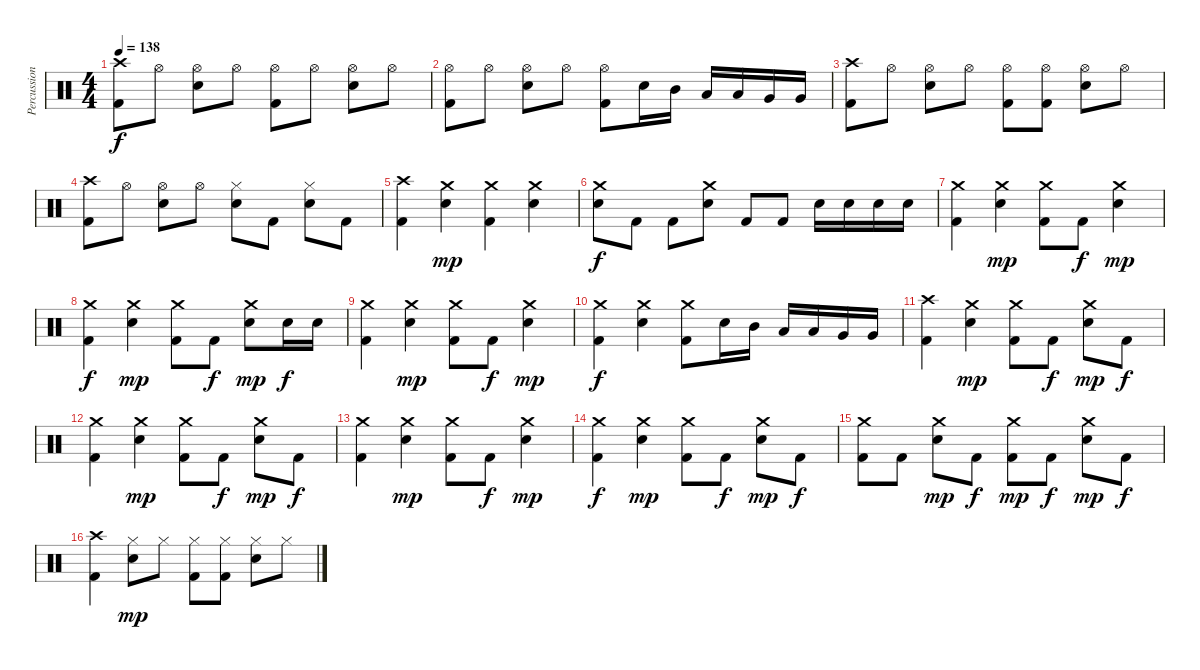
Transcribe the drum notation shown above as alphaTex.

\track ("Percussion" "Percussion") {instrument percussion}
\staff {score}
\articulation defaults
\ts (4 4)
\tempo 138
\clef neutral
\ks c
("Crash high (hit)" "Kick (hit) 2").8{dy f} "Hi-Hat (open)".8 ("Hi-Hat (open)" "Electric Snare (hit)").8 "Hi-Hat (open)".8 ("Hi-Hat (open)" "Kick (hit) 2").8 "Hi-Hat (open)".8 ("Hi-Hat (open)" "Electric Snare (hit)").8 "Hi-Hat (open)".8 |
("Hi-Hat (open)" "Kick (hit) 2").8 "Hi-Hat (open)".8 ("Hi-Hat (open)" "Electric Snare (hit)").8 "Hi-Hat (open)".8 ("Hi-Hat (open)" "Kick (hit) 2").8 "Electric Snare (hit)".16 "Mid Tom (hit)".16 "Low Tom (hit)".16 "Low Tom (hit)".16 "Very Low Tom (hit)".16 "Very Low Tom (hit)".16 |
("Crash high (hit)" "Kick (hit) 2").8 "Hi-Hat (open)".8 ("Hi-Hat (open)" "Electric Snare (hit)").8 "Hi-Hat (open)".8 ("Hi-Hat (open)" "Kick (hit) 2").8 ("Hi-Hat (open)" "Kick (hit) 2").8 ("Hi-Hat (open)" "Electric Snare (hit)").8 "Hi-Hat (open)".8 |
("Crash high (hit)" "Kick (hit) 2").8 "Hi-Hat (open)".8 ("Hi-Hat (open)" "Electric Snare (hit)").8 "Hi-Hat (open)".8 ("Hi-Hat (closed)" "Electric Snare (hit)").8 "Kick (hit) 2".8 ("Hi-Hat (closed)" "Electric Snare (hit)").8 "Kick (hit) 2".8 |
("Crash high (hit)" "Kick (hit) 2").4{volume 13} ("Crash medium (hit)" "Electric Snare (hit)").4{dy mp} ("Crash medium (hit)" "Kick (hit) 2").4 ("Crash medium (hit)" "Electric Snare (hit)").4 |
("Crash medium (hit)" "Electric Snare (hit)").8{dy f} "Kick (hit) 2".8 "Kick (hit) 2".8 ("Crash medium (hit)" "Electric Snare (hit)").8 "Kick (hit) 2".8 "Kick (hit) 2".8 "Electric Snare (hit)".16 "Electric Snare (hit)".16 "Electric Snare (hit)".16 "Electric Snare (hit)".16 |
("Crash medium (hit)" "Kick (hit) 2").4 ("Crash medium (hit)" "Electric Snare (hit)").4{dy mp} ("Crash medium (hit)" "Kick (hit) 2").8 "Kick (hit) 2".8{dy f} ("Crash medium (hit)" "Electric Snare (hit)").4{dy mp} |
("Crash medium (hit)" "Kick (hit) 2").4{dy f} ("Crash medium (hit)" "Electric Snare (hit)").4{dy mp} ("Crash medium (hit)" "Kick (hit) 2").8 "Kick (hit) 2".8{dy f} ("Crash medium (hit)" "Electric Snare (hit)").8{dy mp} "Electric Snare (hit)".16{dy f} "Electric Snare (hit)".16 |
("Crash medium (hit)" "Kick (hit) 2").4 ("Crash medium (hit)" "Electric Snare (hit)").4{dy mp} ("Crash medium (hit)" "Kick (hit) 2").8 "Kick (hit) 2".8{dy f} ("Crash medium (hit)" "Electric Snare (hit)").4{dy mp} |
("Crash medium (hit)" "Kick (hit) 2").4{dy f} ("Crash medium (hit)" "Electric Snare (hit)").4 ("Crash medium (hit)" "Kick (hit) 2").8 "Electric Snare (hit)".16 "Mid Tom (hit)".16 "Low Tom (hit)".16 "Low Tom (hit)".16 "Very Low Tom (hit)".16 "Very Low Tom (hit)".16 |
("Crash high (hit)" "Kick (hit) 2").4 ("Crash medium (hit)" "Electric Snare (hit)").4{dy mp} ("Crash medium (hit)" "Kick (hit) 2").8 "Kick (hit) 2".8{dy f} ("Crash medium (hit)" "Electric Snare (hit)").8{dy mp} "Kick (hit) 2".8{dy f} |
("Crash medium (hit)" "Kick (hit) 2").4 ("Crash medium (hit)" "Electric Snare (hit)").4{dy mp} ("Crash medium (hit)" "Kick (hit) 2").8 "Kick (hit) 2".8{dy f} ("Crash medium (hit)" "Electric Snare (hit)").8{dy mp} "Kick (hit) 2".8{dy f} |
("Crash medium (hit)" "Kick (hit) 2").4 ("Crash medium (hit)" "Electric Snare (hit)").4{dy mp} ("Crash medium (hit)" "Kick (hit) 2").8 "Kick (hit) 2".8{dy f} ("Crash medium (hit)" "Electric Snare (hit)").4{dy mp} |
("Crash medium (hit)" "Kick (hit) 2").4{dy f} ("Crash medium (hit)" "Electric Snare (hit)").4{dy mp} ("Crash medium (hit)" "Kick (hit) 2").8 "Kick (hit) 2".8{dy f} ("Crash medium (hit)" "Electric Snare (hit)").8{dy mp} "Kick (hit) 2".8{dy f} |
("Crash medium (hit)" "Kick (hit) 2").8 "Kick (hit) 2".8 ("Crash medium (hit)" "Electric Snare (hit)").8{dy mp} "Kick (hit) 2".8{dy f} ("Crash medium (hit)" "Kick (hit) 2").8{dy mp} "Kick (hit) 2".8{dy f} ("Crash medium (hit)" "Electric Snare (hit)").8{dy mp} "Kick (hit) 2".8{dy f} |
("Crash high (hit)" "Kick (hit) 2").4 ("Hi-Hat (closed)" "Electric Snare (hit)").8{dy mp} "Hi-Hat (closed)".8 ("Hi-Hat (closed)" "Kick (hit) 2").8 ("Hi-Hat (closed)" "Kick (hit) 2").8 ("Hi-Hat (closed)" "Electric Snare (hit)").8 "Hi-Hat (closed)".8
